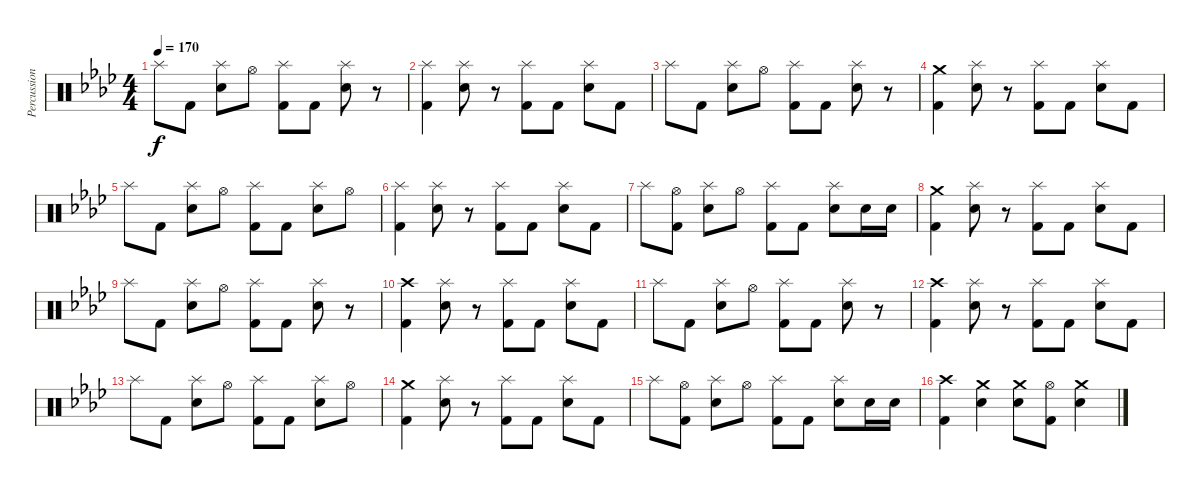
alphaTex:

\track ("Percussion" "Percussion") {instrument percussion}
\staff {score}
\articulation defaults
\ts (4 4)
\tempo 170
\clef neutral
\ks ab "Splash (hit)".8{dy f} "Kick (hit) 2".8
("Splash (hit)" "Electric Snare (hit)").8 "Hi-Hat (open)".8 ("Splash (hit)" "Kick (hit) 2").8 "Kick (hit) 2".8 ("Splash (hit)" "Electric Snare (hit)").8 r.8 |
("Splash (hit)" "Kick (hit) 2").4 ("Splash (hit)" "Electric Snare (hit)").8 r.8 ("Splash (hit)" "Kick (hit) 2").8 "Kick (hit) 2".8 ("Splash (hit)" "Electric Snare (hit)").8 "Kick (hit) 2".8 |
"Splash (hit)".8 "Kick (hit) 2".8 ("Splash (hit)" "Electric Snare (hit)").8 "Hi-Hat (open)".8 ("Splash (hit)" "Kick (hit) 2").8 "Kick (hit) 2".8 ("Splash (hit)" "Electric Snare (hit)").8 r.8 |
("Crash medium (hit)" "Kick (hit) 2").4 ("Splash (hit)" "Electric Snare (hit)").8 r.8 ("Splash (hit)" "Kick (hit) 2").8 "Kick (hit) 2".8 ("Splash (hit)" "Electric Snare (hit)").8 "Kick (hit) 2".8 |
"Splash (hit)".8 "Kick (hit) 2".8 ("Splash (hit)" "Electric Snare (hit)").8 "Hi-Hat (open)".8 ("Splash (hit)" "Kick (hit) 2").8 "Kick (hit) 2".8 ("Splash (hit)" "Electric Snare (hit)").8 "Hi-Hat (open)".8 |
("Splash (hit)" "Kick (hit) 2").4 ("Splash (hit)" "Electric Snare (hit)").8 r.8 ("Splash (hit)" "Kick (hit) 2").8 "Kick (hit) 2".8 ("Splash (hit)" "Electric Snare (hit)").8 "Kick (hit) 2".8 |
"Splash (hit)".8 ("Hi-Hat (open)" "Kick (hit) 2").8 ("Splash (hit)" "Electric Snare (hit)").8 "Hi-Hat (open)".8 ("Splash (hit)" "Kick (hit) 2").8 "Kick (hit) 2".8 ("Splash (hit)" "Electric Snare (hit)").8 "Electric Snare (hit)".16 "Electric Snare (hit)".16 |
("Crash medium (hit)" "Kick (hit) 2").4 ("Splash (hit)" "Electric Snare (hit)").8 r.8 ("Splash (hit)" "Kick (hit) 2").8 "Kick (hit) 2".8 ("Splash (hit)" "Electric Snare (hit)").8 "Kick (hit) 2".8 |
"Splash (hit)".8 "Kick (hit) 2".8 ("Splash (hit)" "Electric Snare (hit)").8 "Hi-Hat (open)".8 ("Splash (hit)" "Kick (hit) 2").8 "Kick (hit) 2".8 ("Splash (hit)" "Electric Snare (hit)").8 r.8 |
("Crash high (hit)" "Kick (hit) 2").4 ("Splash (hit)" "Electric Snare (hit)").8 r.8 ("Splash (hit)" "Kick (hit) 2").8 "Kick (hit) 2".8 ("Splash (hit)" "Electric Snare (hit)").8 "Kick (hit) 2".8 |
"Splash (hit)".8 "Kick (hit) 2".8 ("Splash (hit)" "Electric Snare (hit)").8 "Hi-Hat (open)".8 ("Splash (hit)" "Kick (hit) 2").8 "Kick (hit) 2".8 ("Splash (hit)" "Electric Snare (hit)").8 r.8 |
("Crash high (hit)" "Kick (hit) 2").4 ("Splash (hit)" "Electric Snare (hit)").8 r.8 ("Splash (hit)" "Kick (hit) 2").8 "Kick (hit) 2".8 ("Splash (hit)" "Electric Snare (hit)").8 "Kick (hit) 2".8 |
"Splash (hit)".8 "Kick (hit) 2".8 ("Splash (hit)" "Electric Snare (hit)").8 "Hi-Hat (open)".8 ("Splash (hit)" "Kick (hit) 2").8 "Kick (hit) 2".8 ("Splash (hit)" "Electric Snare (hit)").8 "Hi-Hat (open)".8 |
("Crash medium (hit)" "Kick (hit) 2").4 ("Splash (hit)" "Electric Snare (hit)").8 r.8 ("Splash (hit)" "Kick (hit) 2").8 "Kick (hit) 2".8 ("Splash (hit)" "Electric Snare (hit)").8 "Kick (hit) 2".8 |
"Splash (hit)".8 ("Hi-Hat (open)" "Kick (hit) 2").8 ("Splash (hit)" "Electric Snare (hit)").8 "Hi-Hat (open)".8 ("Splash (hit)" "Kick (hit) 2").8 "Kick (hit) 2".8 ("Splash (hit)" "Electric Snare (hit)").8 "Electric Snare (hit)".16 "Electric Snare (hit)".16 |
("Crash high (hit)" "Kick (hit) 2").4 ("Crash medium (hit)" "Electric Snare (hit)").4 ("Crash medium (hit)" "Electric Snare (hit)").8 ("Hi-Hat (open)" "Kick (hit) 2").8 ("Crash medium (hit)" "Electric Snare (hit)").4
